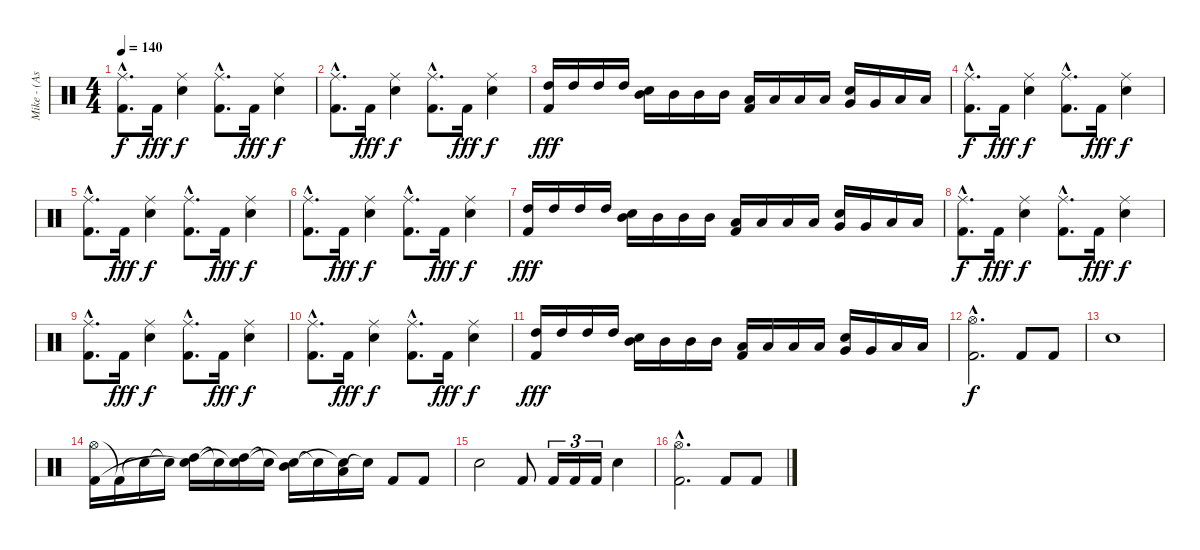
\track ("Mike - (Assault and Battery)" "Mike - (As") {instrument percussion}
\staff {score}
\articulation defaults
\ts (4 4)
\tempo 140
\clef neutral
\ks c
("Ride (middle)"{hac} "Kick (hit) 2"{hac}).8{d dy f} "Kick (hit) 2".16{dy fff} ("Ride (middle)" "Snare (hit) 2").4{dy f} ("Ride (middle)"{hac} "Kick (hit) 2"{hac}).8{d} "Kick (hit) 2".16{dy fff} ("Ride (middle)" "Snare (hit) 2").4{dy f} |
("Ride (middle)"{hac} "Kick (hit) 2"{hac}).8{d} "Kick (hit) 2".16{dy fff} ("Ride (middle)" "Snare (hit) 2").4{dy f} ("Ride (middle)"{hac} "Kick (hit) 2"{hac}).8{d} "Kick (hit) 2".16{dy fff} ("Ride (middle)" "Snare (hit) 2").4{dy f} |
("High Tom (hit)" "Kick (hit) 2").16{dy fff} "High Tom (hit)".16 "High Tom (hit)".16 "High Tom (hit)".16 ("Mid Tom (hit)" "Snare (hit) 2").16 "Mid Tom (hit)".16 "Mid Tom (hit)".16 "Mid Tom (hit)".16 ("Low Tom (hit)" "Kick (hit) 2").16 "Low Tom (hit)".16 "Low Tom (hit)".16 "Low Tom (hit)".16 ("Very Low Tom (hit)" "Snare (hit) 2").16 "Very Low Tom (hit)".16 "Low Floor Tom (hit)".16 "Low Floor Tom (hit)".16 |
("Ride (middle)"{hac} "Kick (hit) 2"{hac}).8{d dy f} "Kick (hit) 2".16{dy fff} ("Ride (middle)" "Snare (hit) 2").4{dy f} ("Ride (middle)"{hac} "Kick (hit) 2"{hac}).8{d} "Kick (hit) 2".16{dy fff} ("Ride (middle)" "Snare (hit) 2").4{dy f} |
("Ride (middle)"{hac} "Kick (hit) 2"{hac}).8{d} "Kick (hit) 2".16{dy fff} ("Ride (middle)" "Snare (hit) 2").4{dy f} ("Ride (middle)"{hac} "Kick (hit) 2"{hac}).8{d} "Kick (hit) 2".16{dy fff} ("Ride (middle)" "Snare (hit) 2").4{dy f} |
("Ride (middle)"{hac} "Kick (hit) 2"{hac}).8{d} "Kick (hit) 2".16{dy fff} ("Ride (middle)" "Snare (hit) 2").4{dy f} ("Ride (middle)"{hac} "Kick (hit) 2"{hac}).8{d} "Kick (hit) 2".16{dy fff} ("Ride (middle)" "Snare (hit) 2").4{dy f} |
("High Tom (hit)" "Kick (hit) 2").16{dy fff} "High Tom (hit)".16 "High Tom (hit)".16 "High Tom (hit)".16 ("Mid Tom (hit)" "Snare (hit) 2").16 "Mid Tom (hit)".16 "Mid Tom (hit)".16 "Mid Tom (hit)".16 ("Low Tom (hit)" "Kick (hit) 2").16 "Low Tom (hit)".16 "Low Tom (hit)".16 "Low Tom (hit)".16 ("Very Low Tom (hit)" "Snare (hit) 2").16 "Very Low Tom (hit)".16 "Low Floor Tom (hit)".16 "Low Floor Tom (hit)".16 |
("Ride (middle)"{hac} "Kick (hit) 2"{hac}).8{d dy f} "Kick (hit) 2".16{dy fff} ("Ride (middle)" "Snare (hit) 2").4{dy f} ("Ride (middle)"{hac} "Kick (hit) 2"{hac}).8{d} "Kick (hit) 2".16{dy fff} ("Ride (middle)" "Snare (hit) 2").4{dy f} |
("Ride (middle)"{hac} "Kick (hit) 2"{hac}).8{d} "Kick (hit) 2".16{dy fff} ("Ride (middle)" "Snare (hit) 2").4{dy f} ("Ride (middle)"{hac} "Kick (hit) 2"{hac}).8{d} "Kick (hit) 2".16{dy fff} ("Ride (middle)" "Snare (hit) 2").4{dy f} |
("Ride (middle)"{hac} "Kick (hit) 2"{hac}).8{d} "Kick (hit) 2".16{dy fff} ("Ride (middle)" "Snare (hit) 2").4{dy f} ("Ride (middle)"{hac} "Kick (hit) 2"{hac}).8{d} "Kick (hit) 2".16{dy fff} ("Ride (middle)" "Snare (hit) 2").4{dy f} |
("High Tom (hit)" "Kick (hit) 2").16{dy fff} "High Tom (hit)".16 "High Tom (hit)".16 "High Tom (hit)".16 ("Mid Tom (hit)" "Snare (hit) 2").16 "Mid Tom (hit)".16 "Mid Tom (hit)".16 "Mid Tom (hit)".16 ("Low Tom (hit)" "Kick (hit) 2").16 "Low Tom (hit)".16 "Low Tom (hit)".16 "Low Tom (hit)".16 ("Very Low Tom (hit)" "Snare (hit) 2").16 "Very Low Tom (hit)".16 "Low Floor Tom (hit)".16 "Low Floor Tom (hit)".16 |
("Hi-Hat (open)"{hac} "Kick (hit) 2"{hac}).2{d dy f} "Kick (hit) 2".8 "Kick (hit) 2".8 |
"Snare (hit) 2".1 |
("Hi-Hat (open)" "Kick (hit) 2").16 "Kick (hit) 2"{t}.16 "Snare (hit)"{t}.16 "Snare (hit)"{t}.16 ("High Tom (hit)" "Snare (hit)"{t}).16 "Snare (hit)"{t}.16 ("High Tom (hit)" "Snare (hit)"{t}).16 "Snare (hit)"{t}.16 ("Mid Tom (hit)" "Snare (hit)"{t}).16 "Snare (hit)"{t}.16 ("Low Tom (hit)" "Snare (hit)"{t}).16 "Snare (hit)"{t}.16 "Kick (hit) 2".8 "Kick (hit) 2".8 |
"Snare (hit) 2".2 "Kick (hit) 2".8 "Kick (hit) 2".16{tu (3 2)} "Kick (hit) 2".16{tu (3 2)} "Kick (hit) 2".16{tu (3 2)} "Snare (hit) 2".4 |
("Hi-Hat (open)"{hac} "Kick (hit) 2"{hac}).2{d} "Kick (hit) 2".8 "Kick (hit) 2".8
